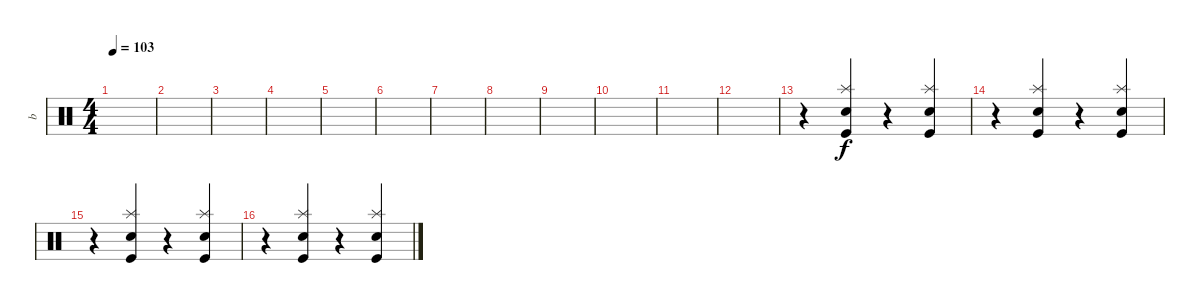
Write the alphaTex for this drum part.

\track ("b" "b") {instrument percussion}
\staff {score}
\articulation defaults
\ts (4 4)
\tempo 103
\clef neutral
\ks c
|
|
|
|
|
|
|
|
|
|
|
|
r.4 ("Snare (hit) 2" "Splash (hit)" "Kick (hit)").4{dy f} r.4 ("Snare (hit) 2" "Splash (hit)" "Kick (hit)").4 |
r.4 ("Snare (hit) 2" "Splash (hit)" "Kick (hit)").4 r.4 ("Snare (hit) 2" "Splash (hit)" "Kick (hit)").4 |
r.4 ("Snare (hit) 2" "Splash (hit)" "Kick (hit)").4 r.4 ("Snare (hit) 2" "Splash (hit)" "Kick (hit)").4 |
r.4 ("Snare (hit) 2" "Splash (hit)" "Kick (hit)").4 r.4 ("Snare (hit) 2" "Splash (hit)" "Kick (hit)").4
